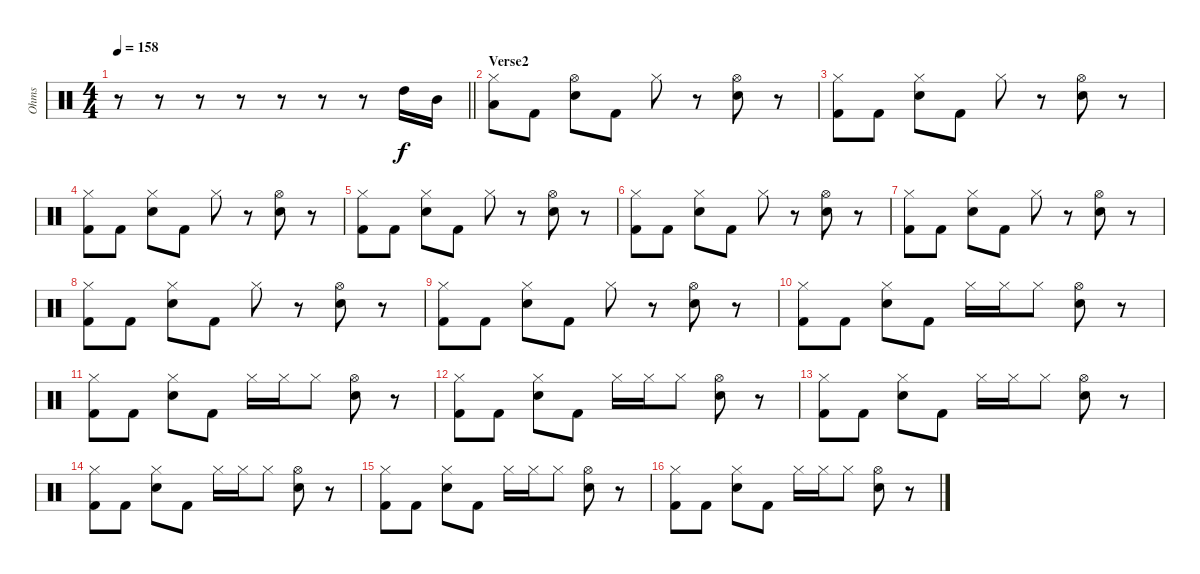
\track ("Ohms" "Ohms") {instrument percussion}
\staff {score}
\articulation defaults
\ts (4 4)
\tempo 158
\clef neutral
\barLineRight lightlight
\ks c
r.8{dy f} r.8 r.8 r.8 r.8 r.8 r.8 "High Tom (hit)".16 "Mid Tom (hit)".16 |
\section ("" "Verse2")
("Hi-Hat (closed)" "Low Tom (hit)").8 "Kick (hit) 2".8 ("Hi-Hat (open)" "Snare (hit) 2").8 "Kick (hit) 2".8 "Hi-Hat (closed)".8 r.8 ("Hi-Hat (open)" "Snare (hit) 2").8 r.8 |
("Hi-Hat (closed)" "Kick (hit) 2").8 "Kick (hit) 2".8 ("Hi-Hat (closed)" "Snare (hit) 2").8 "Kick (hit) 2".8 "Hi-Hat (closed)".8 r.8 ("Hi-Hat (open)" "Snare (hit) 2").8 r.8 |
("Hi-Hat (closed)" "Kick (hit) 2").8 "Kick (hit) 2".8 ("Hi-Hat (closed)" "Snare (hit) 2").8 "Kick (hit) 2".8 "Hi-Hat (closed)".8 r.8 ("Hi-Hat (open)" "Snare (hit) 2").8 r.8 |
("Hi-Hat (closed)" "Kick (hit) 2").8 "Kick (hit) 2".8 ("Hi-Hat (closed)" "Snare (hit) 2").8 "Kick (hit) 2".8 "Hi-Hat (closed)".8 r.8 ("Hi-Hat (open)" "Snare (hit) 2").8 r.8 |
("Hi-Hat (closed)" "Kick (hit) 2").8 "Kick (hit) 2".8 ("Hi-Hat (closed)" "Snare (hit) 2").8 "Kick (hit) 2".8 "Hi-Hat (closed)".8 r.8 ("Hi-Hat (open)" "Snare (hit) 2").8 r.8 |
("Hi-Hat (closed)" "Kick (hit) 2").8 "Kick (hit) 2".8 ("Hi-Hat (closed)" "Snare (hit) 2").8 "Kick (hit) 2".8 "Hi-Hat (closed)".8 r.8 ("Hi-Hat (open)" "Snare (hit) 2").8 r.8 |
("Hi-Hat (closed)" "Kick (hit) 2").8 "Kick (hit) 2".8 ("Hi-Hat (closed)" "Snare (hit) 2").8 "Kick (hit) 2".8 "Hi-Hat (closed)".8 r.8 ("Hi-Hat (open)" "Snare (hit) 2").8 r.8 |
("Hi-Hat (closed)" "Kick (hit) 2").8 "Kick (hit) 2".8 ("Hi-Hat (closed)" "Snare (hit) 2").8 "Kick (hit) 2".8 "Hi-Hat (closed)".8 r.8 ("Hi-Hat (open)" "Snare (hit) 2").8 r.8 |
("Hi-Hat (closed)" "Kick (hit) 2").8 "Kick (hit) 2".8 ("Hi-Hat (closed)" "Snare (hit) 2").8 "Kick (hit) 2".8 "Hi-Hat (closed)".16 "Hi-Hat (closed)".16 "Hi-Hat (closed)".8 ("Hi-Hat (open)" "Snare (hit) 2").8 r.8 |
("Hi-Hat (closed)" "Kick (hit) 2").8 "Kick (hit) 2".8 ("Hi-Hat (closed)" "Snare (hit) 2").8 "Kick (hit) 2".8 "Hi-Hat (closed)".16 "Hi-Hat (closed)".16 "Hi-Hat (closed)".8 ("Hi-Hat (open)" "Snare (hit) 2").8 r.8 |
("Hi-Hat (closed)" "Kick (hit) 2").8 "Kick (hit) 2".8 ("Hi-Hat (closed)" "Snare (hit) 2").8 "Kick (hit) 2".8 "Hi-Hat (closed)".16 "Hi-Hat (closed)".16 "Hi-Hat (closed)".8 ("Hi-Hat (open)" "Snare (hit) 2").8 r.8 |
("Hi-Hat (closed)" "Kick (hit) 2").8 "Kick (hit) 2".8 ("Hi-Hat (closed)" "Snare (hit) 2").8 "Kick (hit) 2".8 "Hi-Hat (closed)".16 "Hi-Hat (closed)".16 "Hi-Hat (closed)".8 ("Hi-Hat (open)" "Snare (hit) 2").8 r.8 |
("Hi-Hat (closed)" "Kick (hit) 2").8 "Kick (hit) 2".8 ("Hi-Hat (closed)" "Snare (hit) 2").8 "Kick (hit) 2".8 "Hi-Hat (closed)".16 "Hi-Hat (closed)".16 "Hi-Hat (closed)".8 ("Hi-Hat (open)" "Snare (hit) 2").8 r.8 |
("Hi-Hat (closed)" "Kick (hit) 2").8 "Kick (hit) 2".8 ("Hi-Hat (closed)" "Snare (hit) 2").8 "Kick (hit) 2".8 "Hi-Hat (closed)".16 "Hi-Hat (closed)".16 "Hi-Hat (closed)".8 ("Hi-Hat (open)" "Snare (hit) 2").8 r.8 |
("Hi-Hat (closed)" "Kick (hit) 2").8 "Kick (hit) 2".8 ("Hi-Hat (closed)" "Snare (hit) 2").8 "Kick (hit) 2".8 "Hi-Hat (closed)".16 "Hi-Hat (closed)".16 "Hi-Hat (closed)".8 ("Hi-Hat (open)" "Snare (hit) 2").8 r.8
